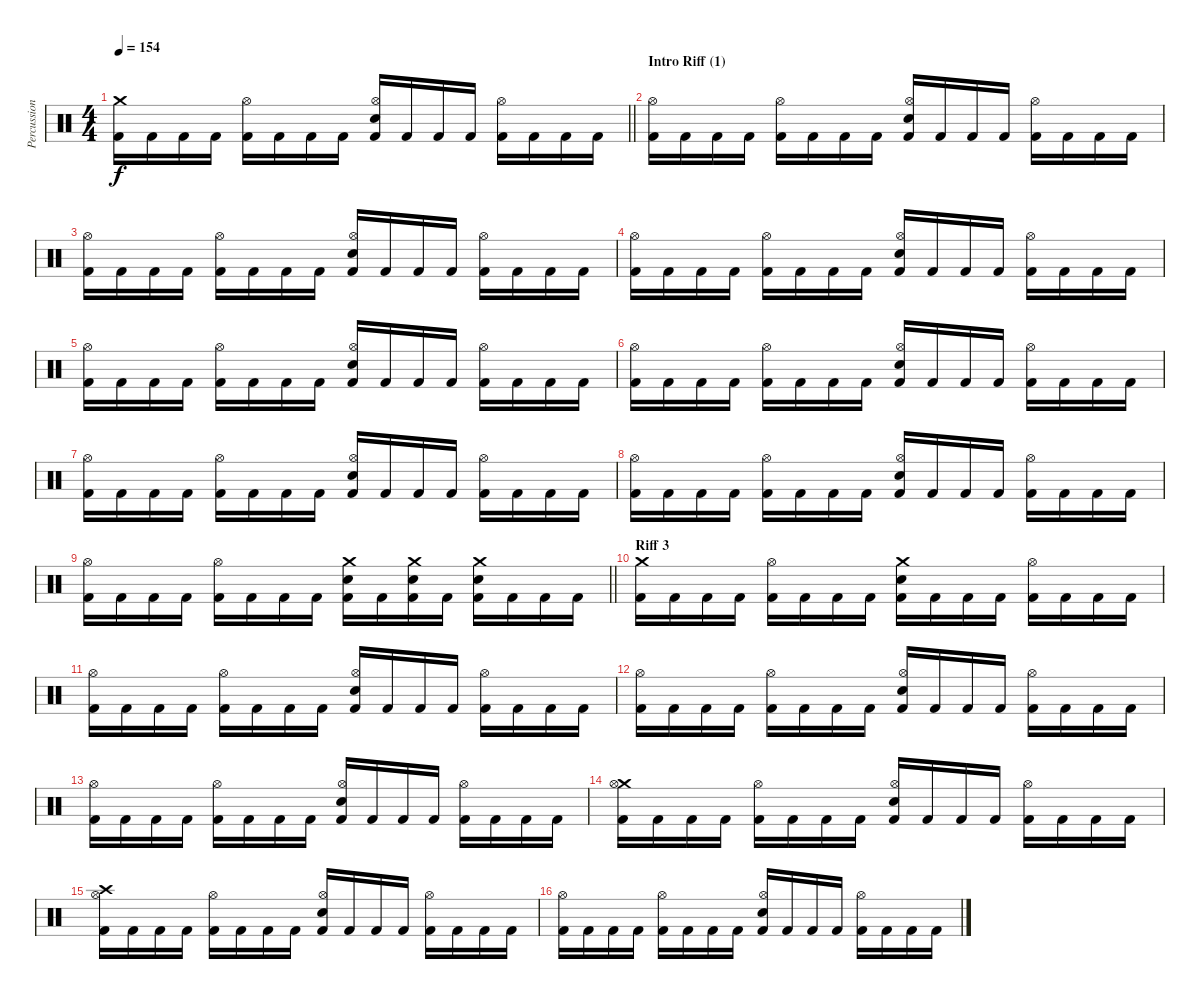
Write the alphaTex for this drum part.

\track ("Percussion" "Percussion") {instrument percussion}
\staff {score}
\articulation defaults
\ts (4 4)
\tempo 154
\clef neutral
\barLineRight lightlight
\ks c
("Crash medium (hit)" "Kick (hit) 2").16{dy f} "Kick (hit) 2".16 "Kick (hit) 2".16 "Kick (hit) 2".16 ("Hi-Hat (open)" "Kick (hit) 2").16 "Kick (hit) 2".16 "Kick (hit) 2".16 "Kick (hit) 2".16 ("Hi-Hat (open)" "Electric Snare (hit)" "Kick (hit) 2").16 "Kick (hit) 2".16 "Kick (hit) 2".16 "Kick (hit) 2".16 ("Hi-Hat (open)" "Kick (hit) 2").16 "Kick (hit) 2".16 "Kick (hit) 2".16 "Kick (hit) 2".16 |
\section ("" "Intro Riff (1)")
("Hi-Hat (open)" "Kick (hit) 2").16 "Kick (hit) 2".16 "Kick (hit) 2".16 "Kick (hit) 2".16 ("Hi-Hat (open)" "Kick (hit) 2").16 "Kick (hit) 2".16 "Kick (hit) 2".16 "Kick (hit) 2".16 ("Hi-Hat (open)" "Electric Snare (hit)" "Kick (hit) 2").16 "Kick (hit) 2".16 "Kick (hit) 2".16 "Kick (hit) 2".16 ("Hi-Hat (open)" "Kick (hit) 2").16 "Kick (hit) 2".16 "Kick (hit) 2".16 "Kick (hit) 2".16 |
("Hi-Hat (open)" "Kick (hit) 2").16 "Kick (hit) 2".16 "Kick (hit) 2".16 "Kick (hit) 2".16 ("Hi-Hat (open)" "Kick (hit) 2").16 "Kick (hit) 2".16 "Kick (hit) 2".16 "Kick (hit) 2".16 ("Hi-Hat (open)" "Electric Snare (hit)" "Kick (hit) 2").16 "Kick (hit) 2".16 "Kick (hit) 2".16 "Kick (hit) 2".16 ("Hi-Hat (open)" "Kick (hit) 2").16 "Kick (hit) 2".16 "Kick (hit) 2".16 "Kick (hit) 2".16 |
("Hi-Hat (open)" "Kick (hit) 2").16 "Kick (hit) 2".16 "Kick (hit) 2".16 "Kick (hit) 2".16 ("Hi-Hat (open)" "Kick (hit) 2").16 "Kick (hit) 2".16 "Kick (hit) 2".16 "Kick (hit) 2".16 ("Hi-Hat (open)" "Electric Snare (hit)" "Kick (hit) 2").16 "Kick (hit) 2".16 "Kick (hit) 2".16 "Kick (hit) 2".16 ("Hi-Hat (open)" "Kick (hit) 2").16 "Kick (hit) 2".16 "Kick (hit) 2".16 "Kick (hit) 2".16 |
("Hi-Hat (open)" "Kick (hit) 2").16 "Kick (hit) 2".16 "Kick (hit) 2".16 "Kick (hit) 2".16 ("Hi-Hat (open)" "Kick (hit) 2").16 "Kick (hit) 2".16 "Kick (hit) 2".16 "Kick (hit) 2".16 ("Hi-Hat (open)" "Electric Snare (hit)" "Kick (hit) 2").16 "Kick (hit) 2".16 "Kick (hit) 2".16 "Kick (hit) 2".16 ("Hi-Hat (open)" "Kick (hit) 2").16 "Kick (hit) 2".16 "Kick (hit) 2".16 "Kick (hit) 2".16 |
("Hi-Hat (open)" "Kick (hit) 2").16 "Kick (hit) 2".16 "Kick (hit) 2".16 "Kick (hit) 2".16 ("Hi-Hat (open)" "Kick (hit) 2").16 "Kick (hit) 2".16 "Kick (hit) 2".16 "Kick (hit) 2".16 ("Hi-Hat (open)" "Electric Snare (hit)" "Kick (hit) 2").16 "Kick (hit) 2".16 "Kick (hit) 2".16 "Kick (hit) 2".16 ("Hi-Hat (open)" "Kick (hit) 2").16 "Kick (hit) 2".16 "Kick (hit) 2".16 "Kick (hit) 2".16 |
("Hi-Hat (open)" "Kick (hit) 2").16 "Kick (hit) 2".16 "Kick (hit) 2".16 "Kick (hit) 2".16 ("Hi-Hat (open)" "Kick (hit) 2").16 "Kick (hit) 2".16 "Kick (hit) 2".16 "Kick (hit) 2".16 ("Hi-Hat (open)" "Electric Snare (hit)" "Kick (hit) 2").16 "Kick (hit) 2".16 "Kick (hit) 2".16 "Kick (hit) 2".16 ("Hi-Hat (open)" "Kick (hit) 2").16 "Kick (hit) 2".16 "Kick (hit) 2".16 "Kick (hit) 2".16 |
("Hi-Hat (open)" "Kick (hit) 2").16 "Kick (hit) 2".16 "Kick (hit) 2".16 "Kick (hit) 2".16 ("Hi-Hat (open)" "Kick (hit) 2").16 "Kick (hit) 2".16 "Kick (hit) 2".16 "Kick (hit) 2".16 ("Hi-Hat (open)" "Electric Snare (hit)" "Kick (hit) 2").16 "Kick (hit) 2".16 "Kick (hit) 2".16 "Kick (hit) 2".16 ("Hi-Hat (open)" "Kick (hit) 2").16 "Kick (hit) 2".16 "Kick (hit) 2".16 "Kick (hit) 2".16 |
\barLineRight lightlight
("Hi-Hat (open)" "Kick (hit) 2").16 "Kick (hit) 2".16 "Kick (hit) 2".16 "Kick (hit) 2".16 ("Hi-Hat (open)" "Kick (hit) 2").16 "Kick (hit) 2".16 "Kick (hit) 2".16 "Kick (hit) 2".16 ("Crash medium (hit)" "Electric Snare (hit)" "Kick (hit) 2").16 "Kick (hit) 2".16 ("Crash medium (hit)" "Electric Snare (hit)" "Kick (hit) 2").16 "Kick (hit) 2".16 ("Crash medium (hit)" "Electric Snare (hit)" "Kick (hit) 2").16 "Kick (hit) 2".16 "Kick (hit) 2".16 "Kick (hit) 2".16 |
\section ("" "Riff 3")
("Crash medium (hit)" "Kick (hit) 2").16 "Kick (hit) 2".16 "Kick (hit) 2".16 "Kick (hit) 2".16 ("Hi-Hat (open)" "Kick (hit) 2").16 "Kick (hit) 2".16 "Kick (hit) 2".16 "Kick (hit) 2".16 ("Crash medium (hit)" "Electric Snare (hit)" "Kick (hit) 2").16 "Kick (hit) 2".16 "Kick (hit) 2".16 "Kick (hit) 2".16 ("Hi-Hat (open)" "Kick (hit) 2").16 "Kick (hit) 2".16 "Kick (hit) 2".16 "Kick (hit) 2".16 |
("Hi-Hat (open)" "Kick (hit) 2").16 "Kick (hit) 2".16 "Kick (hit) 2".16 "Kick (hit) 2".16 ("Hi-Hat (open)" "Kick (hit) 2").16 "Kick (hit) 2".16 "Kick (hit) 2".16 "Kick (hit) 2".16 ("Hi-Hat (open)" "Electric Snare (hit)" "Kick (hit) 2").16 "Kick (hit) 2".16 "Kick (hit) 2".16 "Kick (hit) 2".16 ("Hi-Hat (open)" "Kick (hit) 2").16 "Kick (hit) 2".16 "Kick (hit) 2".16 "Kick (hit) 2".16 |
("Hi-Hat (open)" "Kick (hit) 2").16 "Kick (hit) 2".16 "Kick (hit) 2".16 "Kick (hit) 2".16 ("Hi-Hat (open)" "Kick (hit) 2").16 "Kick (hit) 2".16 "Kick (hit) 2".16 "Kick (hit) 2".16 ("Hi-Hat (open)" "Electric Snare (hit)" "Kick (hit) 2").16 "Kick (hit) 2".16 "Kick (hit) 2".16 "Kick (hit) 2".16 ("Hi-Hat (open)" "Kick (hit) 2").16 "Kick (hit) 2".16 "Kick (hit) 2".16 "Kick (hit) 2".16 |
("Hi-Hat (open)" "Kick (hit) 2").16 "Kick (hit) 2".16 "Kick (hit) 2".16 "Kick (hit) 2".16 ("Hi-Hat (open)" "Kick (hit) 2").16 "Kick (hit) 2".16 "Kick (hit) 2".16 "Kick (hit) 2".16 ("Hi-Hat (open)" "Electric Snare (hit)" "Kick (hit) 2").16 "Kick (hit) 2".16 "Kick (hit) 2".16 "Kick (hit) 2".16 ("Hi-Hat (open)" "Kick (hit) 2").16 "Kick (hit) 2".16 "Kick (hit) 2".16 "Kick (hit) 2".16 |
("Crash medium (hit)" "Hi-Hat (open)" "Kick (hit) 2").16 "Kick (hit) 2".16 "Kick (hit) 2".16 "Kick (hit) 2".16 ("Hi-Hat (open)" "Kick (hit) 2").16 "Kick (hit) 2".16 "Kick (hit) 2".16 "Kick (hit) 2".16 ("Hi-Hat (open)" "Electric Snare (hit)" "Kick (hit) 2").16 "Kick (hit) 2".16 "Kick (hit) 2".16 "Kick (hit) 2".16 ("Hi-Hat (open)" "Kick (hit) 2").16 "Kick (hit) 2".16 "Kick (hit) 2".16 "Kick (hit) 2".16 |
("Crash high (hit)" "Hi-Hat (open)" "Kick (hit) 2").16 "Kick (hit) 2".16 "Kick (hit) 2".16 "Kick (hit) 2".16 ("Hi-Hat (open)" "Kick (hit) 2").16 "Kick (hit) 2".16 "Kick (hit) 2".16 "Kick (hit) 2".16 ("Hi-Hat (open)" "Electric Snare (hit)" "Kick (hit) 2").16 "Kick (hit) 2".16 "Kick (hit) 2".16 "Kick (hit) 2".16 ("Hi-Hat (open)" "Kick (hit) 2").16 "Kick (hit) 2".16 "Kick (hit) 2".16 "Kick (hit) 2".16 |
("Hi-Hat (open)" "Kick (hit) 2").16 "Kick (hit) 2".16 "Kick (hit) 2".16 "Kick (hit) 2".16 ("Hi-Hat (open)" "Kick (hit) 2").16 "Kick (hit) 2".16 "Kick (hit) 2".16 "Kick (hit) 2".16 ("Hi-Hat (open)" "Electric Snare (hit)" "Kick (hit) 2").16 "Kick (hit) 2".16 "Kick (hit) 2".16 "Kick (hit) 2".16 ("Hi-Hat (open)" "Kick (hit) 2").16 "Kick (hit) 2".16 "Kick (hit) 2".16 "Kick (hit) 2".16
